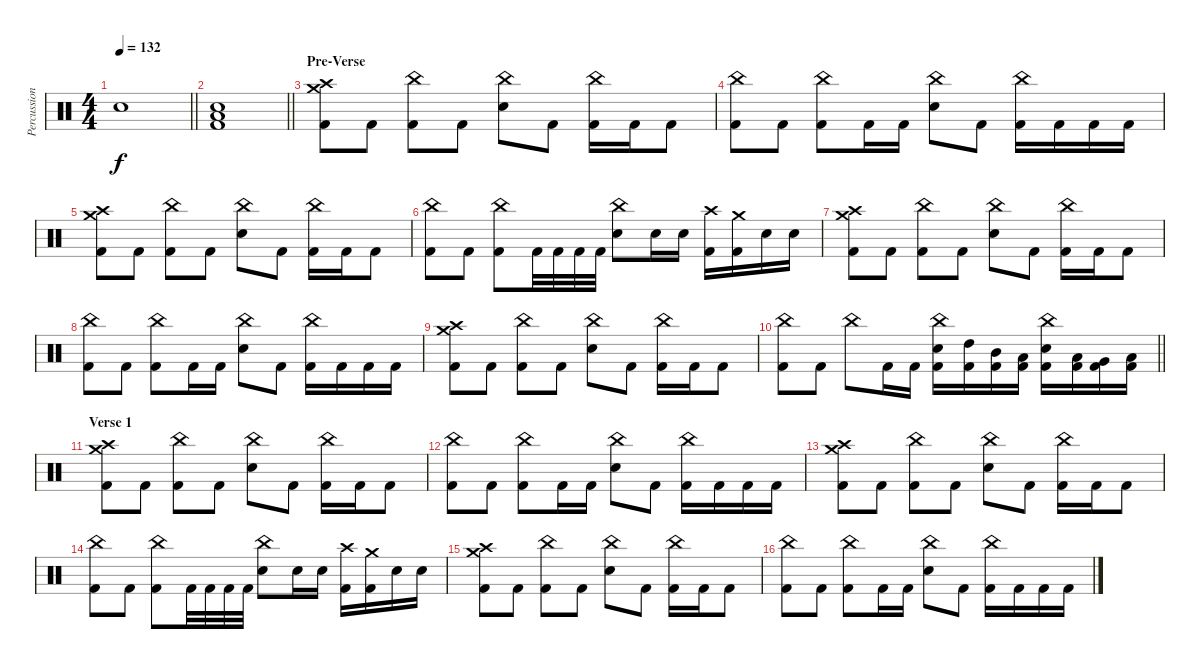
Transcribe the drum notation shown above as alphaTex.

\track ("Percussion" "Percussion") {instrument percussion}
\staff {score}
\articulation defaults
\ts (4 4)
\tempo 132
\clef neutral
\barLineRight lightlight
\ks c "Electric Snare (hit)".1{dy f}
|
\barLineRight lightlight
("Electric Snare (hit)" "Low Floor Tom (hit)" "Kick (hit) 2").1 |
\section ("" "Pre-Verse")
("Crash medium (hit)" "Crash high (hit)" "Kick (hit) 2").8 "Kick (hit) 2".8 ("China (hit)" "Kick (hit) 2").8 "Kick (hit) 2".8 ("China (hit)" "Electric Snare (hit)").8 "Kick (hit) 2".8 ("China (hit)" "Kick (hit) 2").16 "Kick (hit) 2".16 "Kick (hit) 2".8 |
("China (hit)" "Kick (hit) 2").8 "Kick (hit) 2".8 ("China (hit)" "Kick (hit) 2").8 "Kick (hit) 2".16 "Kick (hit) 2".16 ("China (hit)" "Electric Snare (hit)").8 "Kick (hit) 2".8 ("China (hit)" "Kick (hit) 2").16 "Kick (hit) 2".16 "Kick (hit) 2".16 "Kick (hit) 2".16 |
("Crash medium (hit)" "Crash high (hit)" "Kick (hit) 2").8 "Kick (hit) 2".8 ("China (hit)" "Kick (hit) 2").8 "Kick (hit) 2".8 ("China (hit)" "Electric Snare (hit)").8 "Kick (hit) 2".8 ("China (hit)" "Kick (hit) 2").16 "Kick (hit) 2".16 "Kick (hit) 2".8 |
("China (hit)" "Kick (hit) 2").8 "Kick (hit) 2".8 ("China (hit)" "Kick (hit) 2").8 "Kick (hit) 2".32 "Kick (hit) 2".32 "Kick (hit) 2".32 "Kick (hit) 2".32 ("China (hit)" "Electric Snare (hit)").8 "Electric Snare (hit)".16 "Electric Snare (hit)".16 ("Crash high (hit)" "Kick (hit) 2").16 ("Crash medium (hit)" "Kick (hit) 2").16 "Electric Snare (hit)".16 "Electric Snare (hit)".16 |
("Crash medium (hit)" "Crash high (hit)" "Kick (hit) 2").8 "Kick (hit) 2".8 ("China (hit)" "Kick (hit) 2").8 "Kick (hit) 2".8 ("China (hit)" "Electric Snare (hit)").8 "Kick (hit) 2".8 ("China (hit)" "Kick (hit) 2").16 "Kick (hit) 2".16 "Kick (hit) 2".8 |
("China (hit)" "Kick (hit) 2").8 "Kick (hit) 2".8 ("China (hit)" "Kick (hit) 2").8 "Kick (hit) 2".16 "Kick (hit) 2".16 ("China (hit)" "Electric Snare (hit)").8 "Kick (hit) 2".8 ("China (hit)" "Kick (hit) 2").16 "Kick (hit) 2".16 "Kick (hit) 2".16 "Kick (hit) 2".16 |
("Crash medium (hit)" "Crash high (hit)" "Kick (hit) 2").8 "Kick (hit) 2".8 ("China (hit)" "Kick (hit) 2").8 "Kick (hit) 2".8 ("China (hit)" "Electric Snare (hit)").8 "Kick (hit) 2".8 ("China (hit)" "Kick (hit) 2").16 "Kick (hit) 2".16 "Kick (hit) 2".8 |
\barLineRight lightlight
("China (hit)" "Kick (hit) 2").8 "Kick (hit) 2".8 "China (hit)".8 "Kick (hit) 2".16 "Kick (hit) 2".16 ("China (hit)" "Electric Snare (hit)" "Kick (hit) 2").16 ("High Tom (hit)" "Kick (hit) 2").16 ("Mid Tom (hit)" "Kick (hit) 2").16 ("Low Tom (hit)" "Kick (hit) 2").16 ("China (hit)" "Electric Snare (hit)" "Kick (hit) 2").16 ("Low Tom (hit)" "Kick (hit) 2").16 ("Very Low Tom (hit)" "Kick (hit) 2").16 ("Low Floor Tom (hit)" "Kick (hit) 2").16 |
\section ("" "Verse 1")
("Crash medium (hit)" "Crash high (hit)" "Kick (hit) 2").8 "Kick (hit) 2".8 ("China (hit)" "Kick (hit) 2").8 "Kick (hit) 2".8 ("China (hit)" "Electric Snare (hit)").8 "Kick (hit) 2".8 ("China (hit)" "Kick (hit) 2").16 "Kick (hit) 2".16 "Kick (hit) 2".8 |
("China (hit)" "Kick (hit) 2").8 "Kick (hit) 2".8 ("China (hit)" "Kick (hit) 2").8 "Kick (hit) 2".16 "Kick (hit) 2".16 ("China (hit)" "Electric Snare (hit)").8 "Kick (hit) 2".8 ("China (hit)" "Kick (hit) 2").16 "Kick (hit) 2".16 "Kick (hit) 2".16 "Kick (hit) 2".16 |
("Crash medium (hit)" "Crash high (hit)" "Kick (hit) 2").8 "Kick (hit) 2".8 ("China (hit)" "Kick (hit) 2").8 "Kick (hit) 2".8 ("China (hit)" "Electric Snare (hit)").8 "Kick (hit) 2".8 ("China (hit)" "Kick (hit) 2").16 "Kick (hit) 2".16 "Kick (hit) 2".8 |
("China (hit)" "Kick (hit) 2").8 "Kick (hit) 2".8 ("China (hit)" "Kick (hit) 2").8 "Kick (hit) 2".32 "Kick (hit) 2".32 "Kick (hit) 2".32 "Kick (hit) 2".32 ("China (hit)" "Electric Snare (hit)").8 "Electric Snare (hit)".16 "Electric Snare (hit)".16 ("Crash high (hit)" "Kick (hit) 2").16 ("Crash medium (hit)" "Kick (hit) 2").16 "Electric Snare (hit)".16 "Electric Snare (hit)".16 |
("Crash medium (hit)" "Crash high (hit)" "Kick (hit) 2").8 "Kick (hit) 2".8 ("China (hit)" "Kick (hit) 2").8 "Kick (hit) 2".8 ("China (hit)" "Electric Snare (hit)").8 "Kick (hit) 2".8 ("China (hit)" "Kick (hit) 2").16 "Kick (hit) 2".16 "Kick (hit) 2".8 |
("China (hit)" "Kick (hit) 2").8 "Kick (hit) 2".8 ("China (hit)" "Kick (hit) 2").8 "Kick (hit) 2".16 "Kick (hit) 2".16 ("China (hit)" "Electric Snare (hit)").8 "Kick (hit) 2".8 ("China (hit)" "Kick (hit) 2").16 "Kick (hit) 2".16 "Kick (hit) 2".16 "Kick (hit) 2".16
